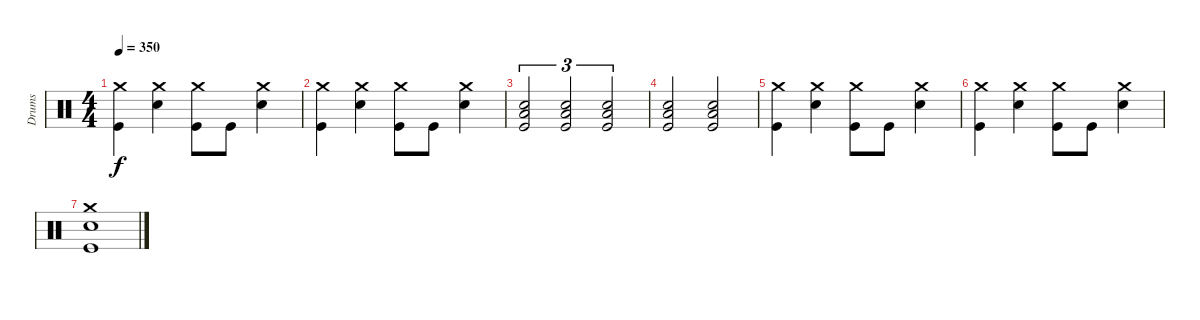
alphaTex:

\track ("Drums" "Drums") {instrument percussion}
\staff {score}
\articulation defaults
\ts (4 4)
\tempo 350
\clef neutral
\ks c
("Crash medium (hit)" "Kick (hit)").4{dy f} ("Crash medium (hit)" "Snare (hit) 2").4 ("Crash medium (hit)" "Kick (hit)").8 "Kick (hit)".8 ("Crash medium (hit)" "Snare (hit) 2").4 |
("Crash medium (hit)" "Kick (hit)").4 ("Crash medium (hit)" "Snare (hit) 2").4 ("Crash medium (hit)" "Kick (hit)").8 "Kick (hit)".8 ("Crash medium (hit)" "Snare (hit) 2").4 |
("Snare (hit) 2" "Low Floor Tom (hit)" "Kick (hit)").2{tu (3 2)} ("Snare (hit) 2" "Low Floor Tom (hit)" "Kick (hit)").2{tu (3 2)} ("Snare (hit) 2" "Low Floor Tom (hit)" "Kick (hit)").2{tu (3 2)} |
("Snare (hit) 2" "Low Floor Tom (hit)" "Kick (hit)").2 ("Snare (hit) 2" "Low Floor Tom (hit)" "Kick (hit)").2 |
("Crash medium (hit)" "Kick (hit)").4 ("Crash medium (hit)" "Snare (hit) 2").4 ("Crash medium (hit)" "Kick (hit)").8 "Kick (hit)".8 ("Crash medium (hit)" "Snare (hit) 2").4 |
("Crash medium (hit)" "Kick (hit)").4 ("Crash medium (hit)" "Snare (hit) 2").4 ("Crash medium (hit)" "Kick (hit)").8 "Kick (hit)".8 ("Crash medium (hit)" "Snare (hit) 2").4 |
("Crash medium (hit)" "Snare (hit) 2" "Kick (hit)").1
